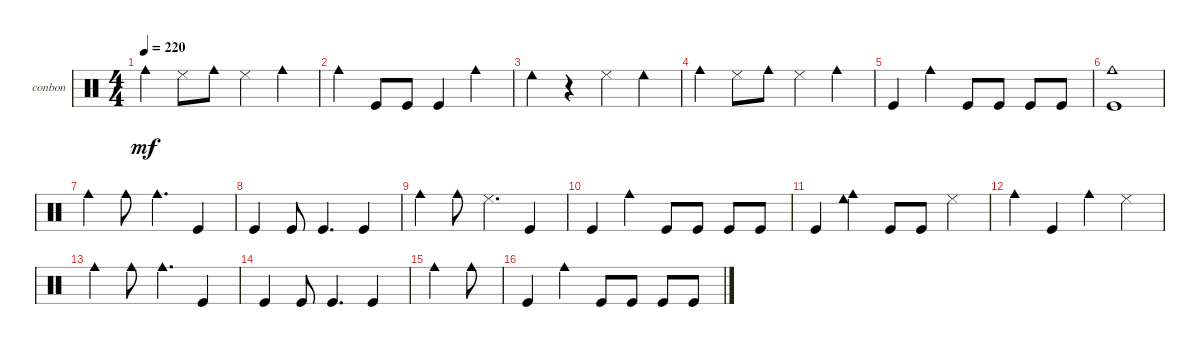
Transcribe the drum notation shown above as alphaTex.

\defaultSystemsLayout 4
\bracketExtendMode groupsimilarinstruments
\firstSystemTrackNameOrientation horizontal
\otherSystemsTrackNameOrientation horizontal
\track ("Bongos N Congas" "conbon") {instrument percussion}
\staff {score}
\articulation defaults
\ts (4 4)
\tempo 220
\clef neutral
\scale
0.474178
\ks c "Cowbell medium (hit)".4{dy mf} "Cowbell low (tip)".8 "Cowbell medium (hit)".8 "Cowbell low (tip)".4 "Cowbell medium (hit)".4
|
\scale
0.262911 "Cowbell medium (hit)".4 "Kick (hit)".8 "Kick (hit)".8 "Kick (hit)".4 "Cowbell medium (hit)".4 |
\scale
0.262911 "Cowbell low (hit)".4 r.4 "Cowbell low (tip)".4 "Cowbell low (hit)".4 |
\scale
0.333333 "Cowbell medium (hit)".4 "Cowbell low (tip)".8 "Cowbell medium (hit)".8 "Cowbell low (tip)".4 "Cowbell medium (hit)".4 |
\scale
0.333333 "Kick (hit)".4 "Cowbell medium (hit)".4 "Kick (hit)".8 "Kick (hit)".8 "Kick (hit)".8 "Kick (hit)".8 |
\scale
0.333333 ("Kick (hit)" "Cowbell medium (hit)").1 |
"Cowbell medium (hit)".4 "Cowbell medium (hit)".8 "Cowbell medium (hit)".4{d} "Kick (hit)".4 |
"Kick (hit)".4 "Kick (hit)".8 "Kick (hit)".4{d} "Kick (hit)".4 |
"Cowbell medium (hit)".4 "Cowbell medium (hit)".8 "Cowbell low (tip)".4{d} "Kick (hit)".4 |
"Kick (hit)".4 "Cowbell medium (hit)".4 "Kick (hit)".8 "Kick (hit)".8 "Kick (hit)".8 "Kick (hit)".8 |
"Kick (hit)".4 ("Cowbell medium (hit)" "Cowbell low (hit)").4 "Kick (hit)".8 "Kick (hit)".8 "Cowbell low (tip)".4 |
"Cowbell medium (hit)".4 "Kick (hit)".4 "Cowbell medium (hit)".4 "Cowbell low (tip)".4 |
"Cowbell medium (hit)".4 "Cowbell medium (hit)".8 "Cowbell medium (hit)".4{d} "Kick (hit)".4 |
"Kick (hit)".4 "Kick (hit)".8 "Kick (hit)".4{d} "Kick (hit)".4 |
"Cowbell medium (hit)".4 "Cowbell medium (hit)".8 |
"Kick (hit)".4 "Cowbell medium (hit)".4 "Kick (hit)".8 "Kick (hit)".8 "Kick (hit)".8 "Kick (hit)".8
